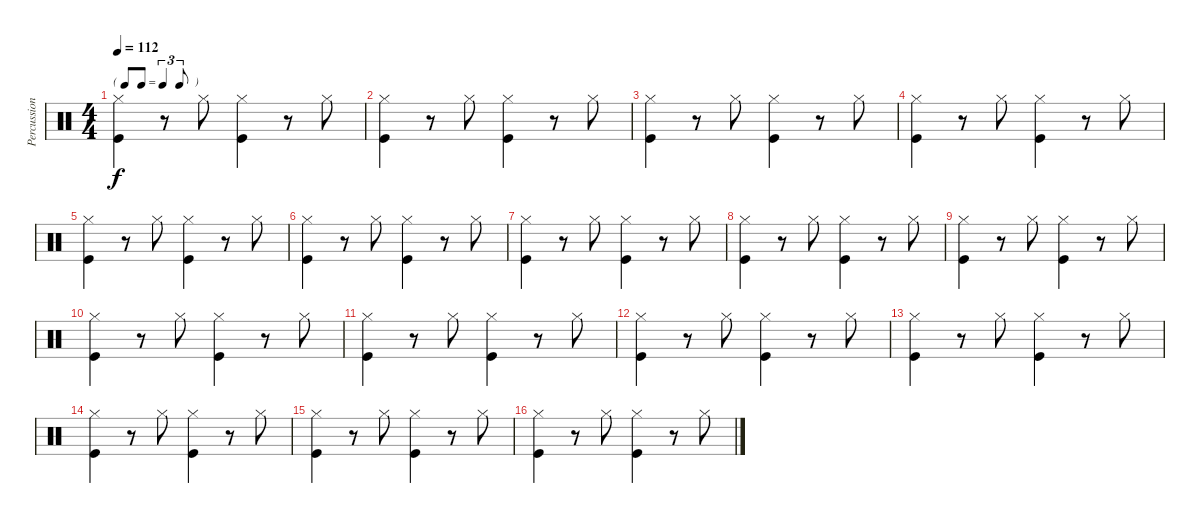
\track ("Percussion" "Percussion") {instrument percussion}
\staff {score}
\articulation defaults
\ts (4 4)
\tf triplet8th
\tempo 112
\clef neutral
\ks c
("Hi-Hat (closed)" "Kick (hit)").4{dy f} r.8 "Hi-Hat (closed)".8 ("Hi-Hat (closed)" "Kick (hit)").4 r.8 "Hi-Hat (closed)".8 |
("Hi-Hat (closed)" "Kick (hit)").4 r.8 "Hi-Hat (closed)".8 ("Hi-Hat (closed)" "Kick (hit)").4 r.8 "Hi-Hat (closed)".8 |
("Hi-Hat (closed)" "Kick (hit)").4 r.8 "Hi-Hat (closed)".8 ("Hi-Hat (closed)" "Kick (hit)").4 r.8 "Hi-Hat (closed)".8 |
("Hi-Hat (closed)" "Kick (hit)").4 r.8 "Hi-Hat (closed)".8 ("Hi-Hat (closed)" "Kick (hit)").4 r.8 "Hi-Hat (closed)".8 |
("Hi-Hat (closed)" "Kick (hit)").4 r.8 "Hi-Hat (closed)".8 ("Hi-Hat (closed)" "Kick (hit)").4 r.8 "Hi-Hat (closed)".8 |
("Hi-Hat (closed)" "Kick (hit)").4 r.8 "Hi-Hat (closed)".8 ("Hi-Hat (closed)" "Kick (hit)").4 r.8 "Hi-Hat (closed)".8 |
("Hi-Hat (closed)" "Kick (hit)").4 r.8 "Hi-Hat (closed)".8 ("Hi-Hat (closed)" "Kick (hit)").4 r.8 "Hi-Hat (closed)".8 |
("Hi-Hat (closed)" "Kick (hit)").4 r.8 "Hi-Hat (closed)".8 ("Hi-Hat (closed)" "Kick (hit)").4 r.8 "Hi-Hat (closed)".8 |
("Hi-Hat (closed)" "Kick (hit)").4 r.8 "Hi-Hat (closed)".8 ("Hi-Hat (closed)" "Kick (hit)").4 r.8 "Hi-Hat (closed)".8 |
("Hi-Hat (closed)" "Kick (hit)").4 r.8 "Hi-Hat (closed)".8 ("Hi-Hat (closed)" "Kick (hit)").4 r.8 "Hi-Hat (closed)".8 |
("Hi-Hat (closed)" "Kick (hit)").4 r.8 "Hi-Hat (closed)".8 ("Hi-Hat (closed)" "Kick (hit)").4 r.8 "Hi-Hat (closed)".8 |
("Hi-Hat (closed)" "Kick (hit)").4 r.8 "Hi-Hat (closed)".8 ("Hi-Hat (closed)" "Kick (hit)").4 r.8 "Hi-Hat (closed)".8 |
("Hi-Hat (closed)" "Kick (hit)").4 r.8 "Hi-Hat (closed)".8 ("Hi-Hat (closed)" "Kick (hit)").4 r.8 "Hi-Hat (closed)".8 |
("Hi-Hat (closed)" "Kick (hit)").4 r.8 "Hi-Hat (closed)".8 ("Hi-Hat (closed)" "Kick (hit)").4 r.8 "Hi-Hat (closed)".8 |
("Hi-Hat (closed)" "Kick (hit)").4 r.8 "Hi-Hat (closed)".8 ("Hi-Hat (closed)" "Kick (hit)").4 r.8 "Hi-Hat (closed)".8 |
("Hi-Hat (closed)" "Kick (hit)").4 r.8 "Hi-Hat (closed)".8 ("Hi-Hat (closed)" "Kick (hit)").4 r.8 "Hi-Hat (closed)".8
